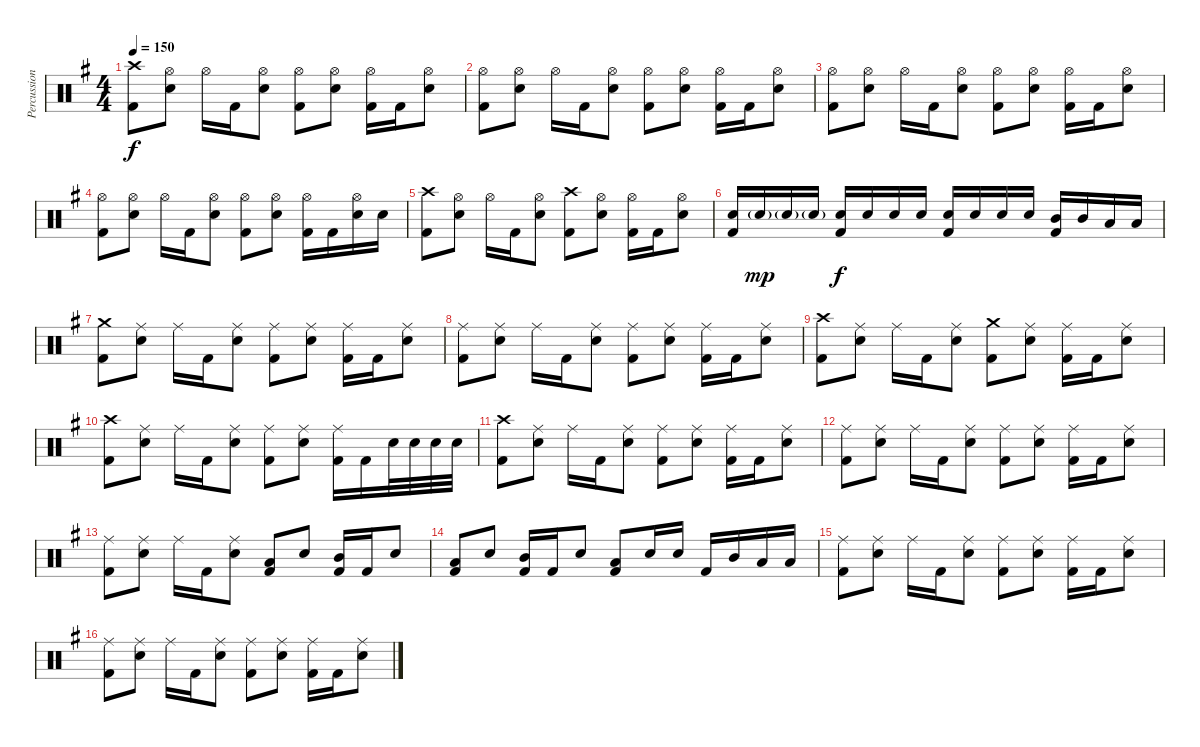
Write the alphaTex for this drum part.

\track ("Percussion" "Percussion") {instrument percussion}
\staff {score}
\articulation defaults
\ts (4 4)
\tempo 150
\clef neutral
\ks g
("Crash high (hit)" "Kick (hit) 2").8{dy f} ("Hi-Hat (open)" "Electric Snare (hit)").8 "Hi-Hat (open)".16 "Kick (hit) 2".16 ("Hi-Hat (open)" "Electric Snare (hit)").8 ("Hi-Hat (open)" "Kick (hit) 2").8 ("Hi-Hat (open)" "Electric Snare (hit)").8 ("Hi-Hat (open)" "Kick (hit) 2").16 "Kick (hit) 2".16 ("Hi-Hat (open)" "Electric Snare (hit)").8 |
("Hi-Hat (open)" "Kick (hit) 2").8 ("Hi-Hat (open)" "Electric Snare (hit)").8 "Hi-Hat (open)".16 "Kick (hit) 2".16 ("Hi-Hat (open)" "Electric Snare (hit)").8 ("Hi-Hat (open)" "Kick (hit) 2").8 ("Hi-Hat (open)" "Electric Snare (hit)").8 ("Hi-Hat (open)" "Kick (hit) 2").16 "Kick (hit) 2".16 ("Hi-Hat (open)" "Electric Snare (hit)").8 |
("Hi-Hat (open)" "Kick (hit) 2").8 ("Hi-Hat (open)" "Electric Snare (hit)").8 "Hi-Hat (open)".16 "Kick (hit) 2".16 ("Hi-Hat (open)" "Electric Snare (hit)").8 ("Hi-Hat (open)" "Kick (hit) 2").8 ("Hi-Hat (open)" "Electric Snare (hit)").8 ("Hi-Hat (open)" "Kick (hit) 2").16 "Kick (hit) 2".16 ("Hi-Hat (open)" "Electric Snare (hit)").8 |
("Hi-Hat (open)" "Kick (hit) 2").8 ("Hi-Hat (open)" "Electric Snare (hit)").8 "Hi-Hat (open)".16 "Kick (hit) 2".16 ("Hi-Hat (open)" "Electric Snare (hit)").8 ("Hi-Hat (open)" "Kick (hit) 2").8 ("Hi-Hat (open)" "Electric Snare (hit)").8 ("Hi-Hat (open)" "Kick (hit) 2").16 "Kick (hit) 2".16 ("Hi-Hat (open)" "Electric Snare (hit)").16 "Electric Snare (hit)".16 |
("Crash high (hit)" "Kick (hit) 2").8 ("Hi-Hat (open)" "Electric Snare (hit)").8 "Hi-Hat (open)".16 "Kick (hit) 2".16 ("Hi-Hat (open)" "Electric Snare (hit)").8 ("Crash high (hit)" "Kick (hit) 2").8 ("Hi-Hat (open)" "Electric Snare (hit)").8 ("Hi-Hat (open)" "Kick (hit) 2").16 "Kick (hit) 2".16 ("Hi-Hat (open)" "Electric Snare (hit)").8 |
("Electric Snare (hit)" "Kick (hit) 2").16 "Electric Snare (hit)"{g}.16{dy mp} "Electric Snare (hit)"{g}.16 "Electric Snare (hit)"{g}.16 ("Snare (hit) 2" "Kick (hit) 2").16{dy f} "Snare (hit) 2".16 "Snare (hit) 2".16 "Snare (hit) 2".16 ("Electric Snare (hit)" "Kick (hit) 2").16 "Electric Snare (hit)".16 "Electric Snare (hit)".16 "Electric Snare (hit)".16 ("Mid Tom (hit)" "Kick (hit) 2").16 "Mid Tom (hit)".16 "Low Tom (hit)".16 "Low Tom (hit)".16 |
("Crash medium (hit)" "Kick (hit) 2").8 ("Ride (middle)" "Electric Snare (hit)").8 "Ride (middle)".16 "Kick (hit) 2".16 ("Ride (middle)" "Electric Snare (hit)").8 ("Ride (middle)" "Kick (hit) 2").8 ("Ride (middle)" "Electric Snare (hit)").8 ("Ride (middle)" "Kick (hit) 2").16 "Kick (hit) 2".16 ("Ride (middle)" "Electric Snare (hit)").8 |
("Ride (middle)" "Kick (hit) 2").8 ("Ride (middle)" "Electric Snare (hit)").8 "Ride (middle)".16 "Kick (hit) 2".16 ("Ride (middle)" "Electric Snare (hit)").8 ("Ride (middle)" "Kick (hit) 2").8 ("Ride (middle)" "Electric Snare (hit)").8 ("Ride (middle)" "Kick (hit) 2").16 "Kick (hit) 2".16 ("Ride (middle)" "Electric Snare (hit)").8 |
("Crash high (hit)" "Kick (hit) 2").8 ("Ride (middle)" "Electric Snare (hit)").8 "Ride (middle)".16 "Kick (hit) 2".16 ("Ride (middle)" "Electric Snare (hit)").8 ("Crash medium (hit)" "Kick (hit) 2").8 ("Ride (middle)" "Electric Snare (hit)").8 ("Ride (middle)" "Kick (hit) 2").16 "Kick (hit) 2".16 ("Ride (middle)" "Electric Snare (hit)").8 |
("Crash high (hit)" "Kick (hit) 2").8 ("Ride (middle)" "Electric Snare (hit)").8 "Ride (middle)".16 "Kick (hit) 2".16 ("Ride (middle)" "Electric Snare (hit)").8 ("Ride (middle)" "Kick (hit) 2").8 ("Ride (middle)" "Electric Snare (hit)").8 ("Ride (middle)" "Kick (hit) 2").16 "Kick (hit) 2".16 "Electric Snare (hit)".32 "Electric Snare (hit)".32 "Electric Snare (hit)".32 "Electric Snare (hit)".32 |
("Crash high (hit)" "Kick (hit) 2").8 ("Ride (middle)" "Electric Snare (hit)").8 "Ride (middle)".16 "Kick (hit) 2".16 ("Ride (middle)" "Electric Snare (hit)").8 ("Ride (middle)" "Kick (hit) 2").8 ("Ride (middle)" "Electric Snare (hit)").8 ("Ride (middle)" "Kick (hit) 2").16 "Kick (hit) 2".16 ("Ride (middle)" "Electric Snare (hit)").8 |
("Ride (middle)" "Kick (hit) 2").8 ("Ride (middle)" "Electric Snare (hit)").8 "Ride (middle)".16 "Kick (hit) 2".16 ("Ride (middle)" "Electric Snare (hit)").8 ("Ride (middle)" "Kick (hit) 2").8 ("Ride (middle)" "Electric Snare (hit)").8 ("Ride (middle)" "Kick (hit) 2").16 "Kick (hit) 2".16 ("Ride (middle)" "Electric Snare (hit)").8 |
("Ride (middle)" "Kick (hit) 2").8 ("Ride (middle)" "Electric Snare (hit)").8 "Ride (middle)".16 "Kick (hit) 2".16 ("Ride (middle)" "Electric Snare (hit)").8 ("Low Tom (hit)" "Kick (hit) 2").8 "Electric Snare (hit)".8 ("Mid Tom (hit)" "Kick (hit) 2").16 "Kick (hit) 2".16 "Electric Snare (hit)".8 |
("Low Tom (hit)" "Kick (hit) 2").8 "Electric Snare (hit)".8 ("Mid Tom (hit)" "Kick (hit) 2").16 "Kick (hit) 2".16 "Electric Snare (hit)".8 ("Low Tom (hit)" "Kick (hit) 2").8 "Electric Snare (hit)".16 "Electric Snare (hit)".16 "Kick (hit) 2".16 "Mid Tom (hit)".16 "Low Tom (hit)".16 "Low Tom (hit)".16 |
("Ride (middle)" "Kick (hit) 2").8 ("Ride (middle)" "Electric Snare (hit)").8 "Ride (middle)".16 "Kick (hit) 2".16 ("Ride (middle)" "Electric Snare (hit)").8 ("Ride (middle)" "Kick (hit) 2").8 ("Ride (middle)" "Electric Snare (hit)").8 ("Ride (middle)" "Kick (hit) 2").16 "Kick (hit) 2".16 ("Ride (middle)" "Electric Snare (hit)").8 |
("Ride (middle)" "Kick (hit) 2").8 ("Ride (middle)" "Electric Snare (hit)").8 "Ride (middle)".16 "Kick (hit) 2".16 ("Ride (middle)" "Electric Snare (hit)").8 ("Ride (middle)" "Kick (hit) 2").8 ("Ride (middle)" "Electric Snare (hit)").8 ("Ride (middle)" "Kick (hit) 2").16 "Kick (hit) 2".16 ("Ride (middle)" "Electric Snare (hit)").8
